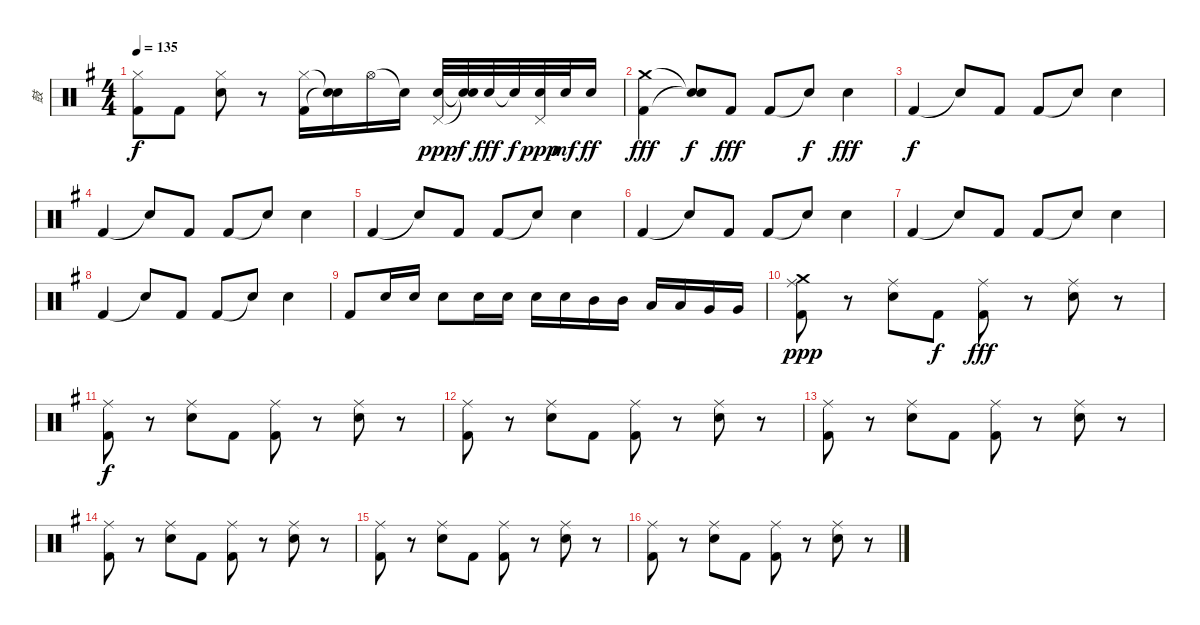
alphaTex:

\track ("鼓" "鼓") {instrument percussion}
\staff {score}
\articulation defaults
\ts (4 4)
\tempo 135
\clef neutral
\ks g
("Kick (hit) 2" "Hi-Hat (closed)").8{dy f} "Kick (hit) 2".8 ("Snare (hit) 2" "Hi-Hat (closed)").8 r.8 ("Kick (hit) 2" "Hi-Hat (closed)").16 ("Snare (hit)"{t} "Snare (hit)"{t}).16 "Hi-Hat (open)".16 "Snare (hit)"{t}.16 ("Electric Snare (hit)" "Pedal Hi-Hat (hit)").32{dy ppp} ("Snare (hit)"{t} "Snare (hit)"{t}).32{dy f} "Electric Snare (hit)".32{dy fff} "Snare (hit)"{t}.32{dy f} ("Electric Snare (hit)" "Pedal Hi-Hat (hit)").32{dy ppp} "Electric Snare (hit)".32{dy mf} "Electric Snare (hit)".16{dy ff} |
("Kick (hit) 2" "Crash medium (hit)").4{dy fff} ("Snare (hit)"{t} "Snare (hit)"{t}).8{dy f} "Kick (hit) 2".8{dy fff} "Kick (hit) 2".8 "Snare (hit)"{t}.8{dy f} "Snare (hit) 2".4{dy fff} |
"Kick (hit) 2".4{dy f} "Snare (hit)"{t}.8 "Kick (hit) 2".8 "Kick (hit) 2".8 "Snare (hit)"{t}.8 "Snare (hit) 2".4 |
"Kick (hit) 2".4 "Snare (hit)"{t}.8 "Kick (hit) 2".8 "Kick (hit) 2".8 "Snare (hit)"{t}.8 "Snare (hit) 2".4 |
"Kick (hit) 2".4 "Snare (hit)"{t}.8 "Kick (hit) 2".8 "Kick (hit) 2".8 "Snare (hit)"{t}.8 "Snare (hit) 2".4 |
"Kick (hit) 2".4 "Snare (hit)"{t}.8 "Kick (hit) 2".8 "Kick (hit) 2".8 "Snare (hit)"{t}.8 "Snare (hit) 2".4 |
"Kick (hit) 2".4 "Snare (hit)"{t}.8 "Kick (hit) 2".8 "Kick (hit) 2".8 "Snare (hit)"{t}.8 "Snare (hit) 2".4 |
"Kick (hit) 2".4 "Snare (hit)"{t}.8 "Kick (hit) 2".8 "Kick (hit) 2".8 "Snare (hit)"{t}.8 "Snare (hit) 2".4 |
"Kick (hit) 2".8 "Snare (hit) 2".16 "Snare (hit) 2".16 "Snare (hit) 2".8 "Snare (hit) 2".16 "Snare (hit) 2".16 "Snare (hit) 2".16 "Snare (hit) 2".16 "Mid Tom (hit)".16 "Mid Tom (hit)".16 "Low Tom (hit)".16 "Low Tom (hit)".16 "Very Low Tom (hit)".16 "Very Low Tom (hit)".16 |
("Crash medium (hit)" "Kick (hit) 2" "Ride (middle)").8{dy ppp} r.8 ("Snare (hit) 2" "Ride (middle)").8 "Kick (hit) 2".8{dy f} ("Kick (hit) 2" "Ride (middle)").8{dy fff} r.8 ("Snare (hit) 2" "Ride (middle)").8 r.8 |
("Kick (hit) 2" "Ride (middle)").8{dy f} r.8 ("Snare (hit) 2" "Ride (middle)").8 "Kick (hit) 2".8 ("Kick (hit) 2" "Ride (middle)").8 r.8 ("Snare (hit) 2" "Ride (middle)").8 r.8 |
("Kick (hit) 2" "Ride (middle)").8 r.8 ("Snare (hit) 2" "Ride (middle)").8 "Kick (hit) 2".8 ("Kick (hit) 2" "Ride (middle)").8 r.8 ("Snare (hit) 2" "Ride (middle)").8 r.8 |
("Kick (hit) 2" "Ride (middle)").8 r.8 ("Snare (hit) 2" "Ride (middle)").8 "Kick (hit) 2".8 ("Kick (hit) 2" "Ride (middle)").8 r.8 ("Snare (hit) 2" "Ride (middle)").8 r.8 |
("Kick (hit) 2" "Ride (middle)").8 r.8 ("Snare (hit) 2" "Ride (middle)").8 "Kick (hit) 2".8 ("Kick (hit) 2" "Ride (middle)").8 r.8 ("Snare (hit) 2" "Ride (middle)").8 r.8 |
("Kick (hit) 2" "Ride (middle)").8 r.8 ("Snare (hit) 2" "Ride (middle)").8 "Kick (hit) 2".8 ("Kick (hit) 2" "Ride (middle)").8 r.8 ("Snare (hit) 2" "Ride (middle)").8 r.8 |
("Kick (hit) 2" "Ride (middle)").8 r.8 ("Snare (hit) 2" "Ride (middle)").8 "Kick (hit) 2".8 ("Kick (hit) 2" "Ride (middle)").8 r.8 ("Snare (hit) 2" "Ride (middle)").8 r.8
